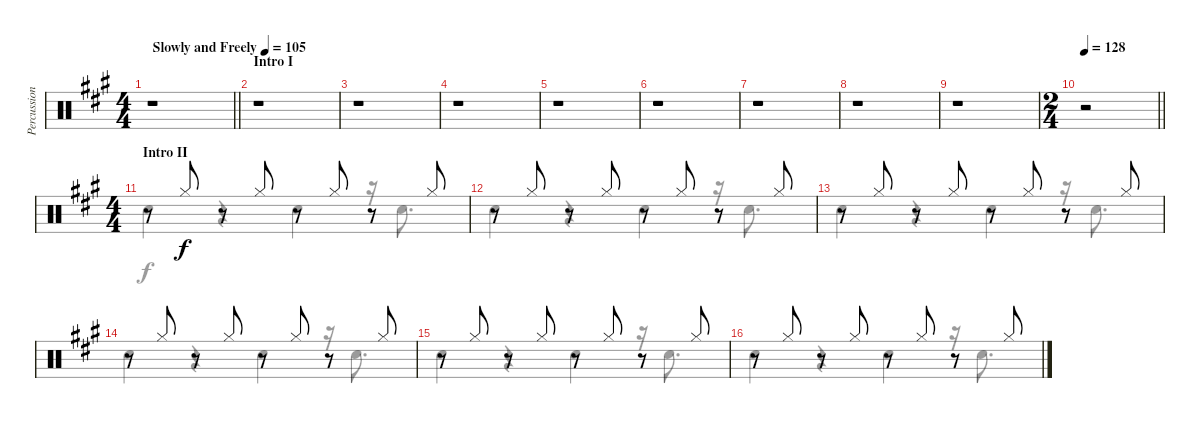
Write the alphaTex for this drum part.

\track ("Percussion" "Percussion") {instrument percussion}
\staff {score}
\articulation defaults
\voice
\ts (4 4)
\tempo (105 "Slowly and Freely")
\clef neutral
\barLineRight lightlight
\ks a
r.1{dy f} |
\section ("" "Intro I")
r.1 |
r.1 |
r.1 |
r.1 |
r.1 |
r.1 |
r.1 |
r.1 |
\ts (2 4)
\tempo 128
\barLineRight lightlight
r.2 |
\ts (4 4)
\section ("" "Intro II")
r.8 "Hi-Hat (closed)".8 r.8 "Hi-Hat (closed)".8 r.8 "Hi-Hat (closed)".8 r.8 "Hi-Hat (closed)".8 |
r.8 "Hi-Hat (closed)".8 r.8 "Hi-Hat (closed)".8 r.8 "Hi-Hat (closed)".8 r.8 "Hi-Hat (closed)".8 |
r.8 "Hi-Hat (closed)".8 r.8 "Hi-Hat (closed)".8 r.8 "Hi-Hat (closed)".8 r.8 "Hi-Hat (closed)".8 |
r.8 "Hi-Hat (closed)".8 r.8 "Hi-Hat (closed)".8 r.8 "Hi-Hat (closed)".8 r.8 "Hi-Hat (closed)".8 |
r.8 "Hi-Hat (closed)".8 r.8 "Hi-Hat (closed)".8 r.8 "Hi-Hat (closed)".8 r.8 "Hi-Hat (closed)".8 |
r.8 "Hi-Hat (closed)".8 r.8 "Hi-Hat (closed)".8 r.8 "Hi-Hat (closed)".8 r.8 "Hi-Hat (closed)".8
\voice
\clef neutral
\ottava regular
\simile none
\barLineRight lightlight
\ks a
|
|
|
|
|
|
|
|
|
\barLineRight lightlight
|
"Snare (hit) 2".4 r.4 "Snare (hit) 2".4 r.16 "Snare (hit) 2".8{d} |
"Snare (hit) 2".4 r.4 "Snare (hit) 2".4 r.16 "Snare (hit) 2".8{d} |
"Snare (hit) 2".4 r.4 "Snare (hit) 2".4 r.16 "Snare (hit) 2".8{d} |
"Snare (hit) 2".4 r.4 "Snare (hit) 2".4 r.16 "Snare (hit) 2".8{d} |
"Snare (hit) 2".4 r.4 "Snare (hit) 2".4 r.16 "Snare (hit) 2".8{d} |
"Snare (hit) 2".4 r.4 "Snare (hit) 2".4 r.16 "Snare (hit) 2".8{d}
